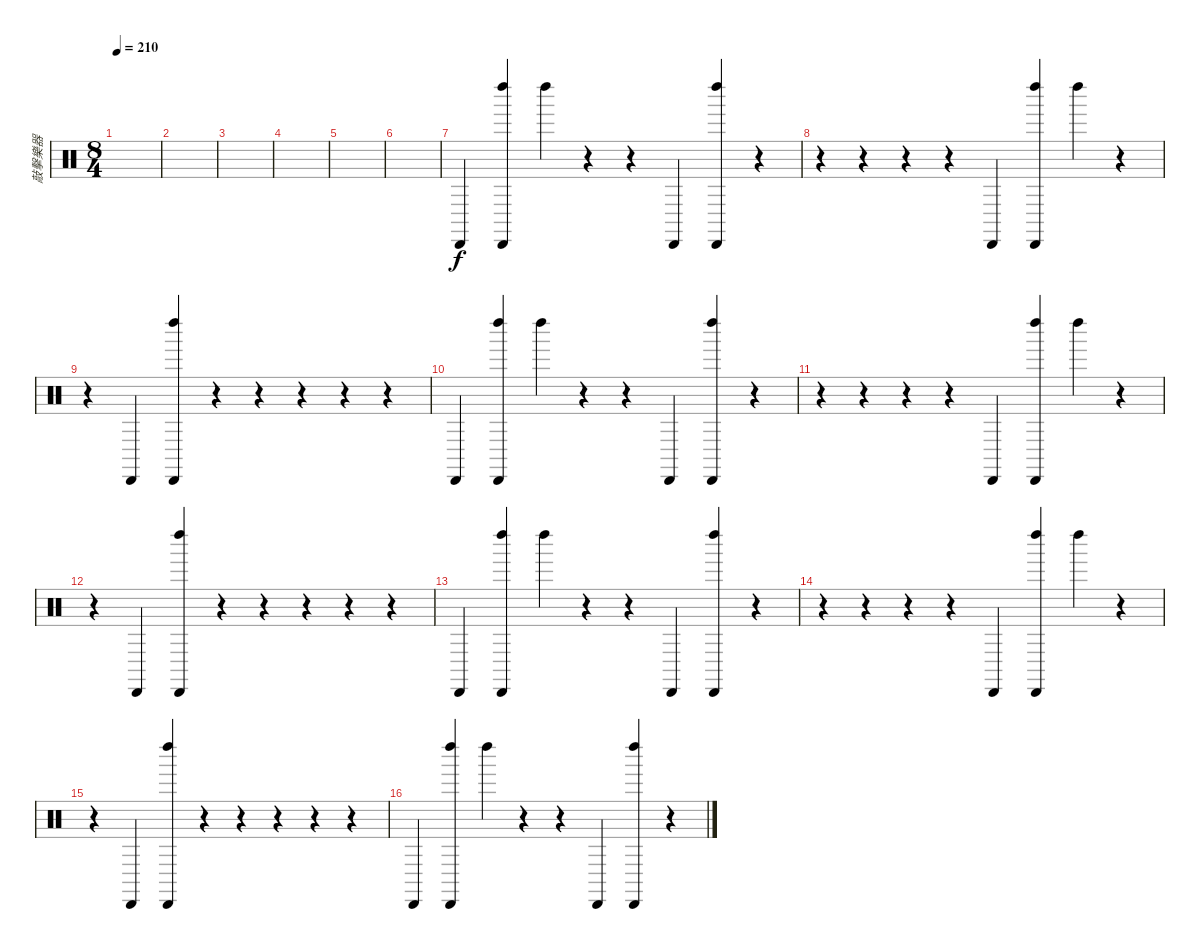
\track ("敲擊樂器" "敲擊樂器") {instrument percussion}
\staff {score}
\articulation defaults
\ts (8 4)
\tempo 210
\clef neutral
\ks c
|
|
|
|
|
|
"Cabasa (hit)".4 ("Left Maraca (hit)" "Cabasa (hit)").4 "Left Maraca (hit)".4 r.4 r.4 "Cabasa (hit)".4 ("Left Maraca (hit)" "Cabasa (hit)").4 r.4 |
r.4 r.4 r.4 r.4 "Cabasa (hit)".4 ("Left Maraca (hit)" "Cabasa (hit)").4 "Left Maraca (hit)".4 r.4 |
r.4 "Cabasa (hit)".4 ("Left Maraca (hit)" "Cabasa (hit)").4 r.4 r.4 r.4 r.4 r.4 |
"Cabasa (hit)".4 ("Left Maraca (hit)" "Cabasa (hit)").4 "Left Maraca (hit)".4 r.4 r.4 "Cabasa (hit)".4 ("Left Maraca (hit)" "Cabasa (hit)").4 r.4 |
r.4 r.4 r.4 r.4 "Cabasa (hit)".4 ("Left Maraca (hit)" "Cabasa (hit)").4 "Left Maraca (hit)".4 r.4 |
r.4 "Cabasa (hit)".4 ("Left Maraca (hit)" "Cabasa (hit)").4 r.4 r.4 r.4 r.4 r.4 |
"Cabasa (hit)".4 ("Left Maraca (hit)" "Cabasa (hit)").4 "Left Maraca (hit)".4 r.4 r.4 "Cabasa (hit)".4 ("Left Maraca (hit)" "Cabasa (hit)").4 r.4 |
r.4 r.4 r.4 r.4 "Cabasa (hit)".4 ("Left Maraca (hit)" "Cabasa (hit)").4 "Left Maraca (hit)".4 r.4 |
r.4 "Cabasa (hit)".4 ("Left Maraca (hit)" "Cabasa (hit)").4 r.4 r.4 r.4 r.4 r.4 |
"Cabasa (hit)".4 ("Left Maraca (hit)" "Cabasa (hit)").4 "Left Maraca (hit)".4 r.4 r.4 "Cabasa (hit)".4 ("Left Maraca (hit)" "Cabasa (hit)").4 r.4
